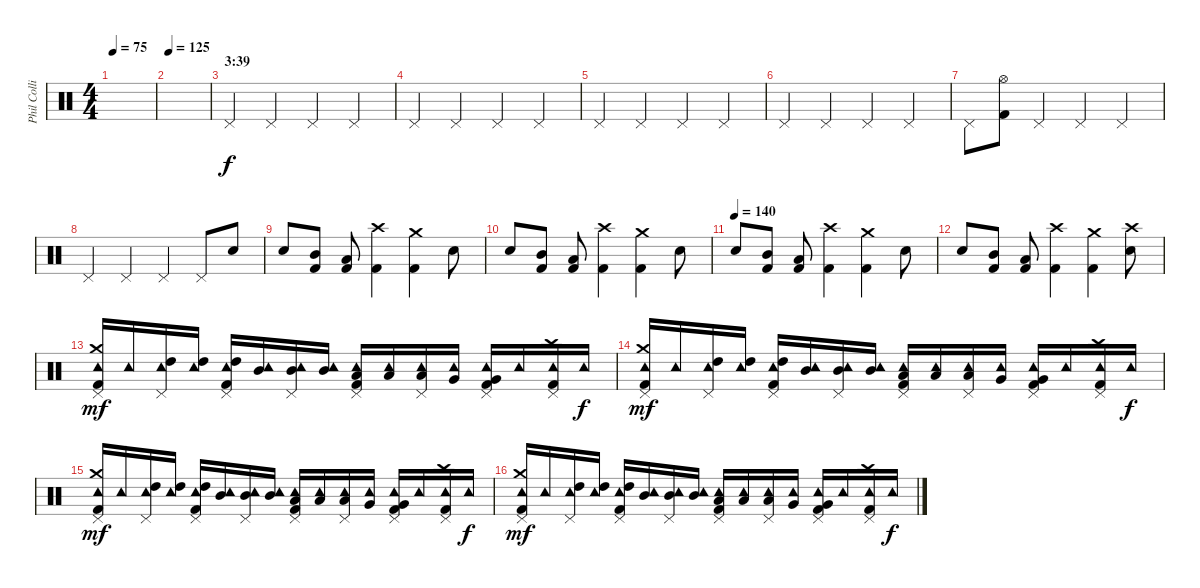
\track ("Phil Collins (drums)" "Phil Colli") {instrument percussion}
\staff {score}
\articulation defaults
\ts (4 4)
\tempo 75
\clef neutral
\ks c
|
\tempo 125
|
\section ("" "3:39")
"Pedal Hi-Hat (hit)".4 "Pedal Hi-Hat (hit)".4 "Pedal Hi-Hat (hit)".4 "Pedal Hi-Hat (hit)".4 |
"Pedal Hi-Hat (hit)".4 "Pedal Hi-Hat (hit)".4 "Pedal Hi-Hat (hit)".4 "Pedal Hi-Hat (hit)".4 |
"Pedal Hi-Hat (hit)".4 "Pedal Hi-Hat (hit)".4 "Pedal Hi-Hat (hit)".4 "Pedal Hi-Hat (hit)".4 |
"Pedal Hi-Hat (hit)".4 "Pedal Hi-Hat (hit)".4 "Pedal Hi-Hat (hit)".4 "Pedal Hi-Hat (hit)".4 |
"Pedal Hi-Hat (hit)".8 ("Hi-Hat (open)" "Kick (hit) 2").8 "Pedal Hi-Hat (hit)".4 "Pedal Hi-Hat (hit)".4 "Pedal Hi-Hat (hit)".4 |
"Pedal Hi-Hat (hit)".4 "Pedal Hi-Hat (hit)".4 "Pedal Hi-Hat (hit)".4 "Pedal Hi-Hat (hit)".8 "Electric Snare (hit)".8 |
"Electric Snare (hit)".8 ("Mid Tom (hit)" "Kick (hit) 2").8 ("Low Tom (hit)" "Kick (hit) 2").8 ("Crash high (hit)" "Kick (hit) 2").4 ("Crash medium (hit)" "Kick (hit) 2").4 "Electric Snare (hit)".8 |
"Electric Snare (hit)".8 ("Mid Tom (hit)" "Kick (hit) 2").8 ("Low Tom (hit)" "Kick (hit) 2").8 ("Crash high (hit)" "Kick (hit) 2").4 ("Crash medium (hit)" "Kick (hit) 2").4 "Electric Snare (hit)".8 |
\tempo (140)
"Electric Snare (hit)".8 ("Mid Tom (hit)" "Kick (hit) 2").8 ("Low Tom (hit)" "Kick (hit) 2").8 ("Crash high (hit)" "Kick (hit) 2").4 ("Crash medium (hit)" "Kick (hit) 2").4 "Electric Snare (hit)".8 |
"Electric Snare (hit)".8 ("Mid Tom (hit)" "Kick (hit) 2").8 ("Low Tom (hit)" "Kick (hit) 2").8 ("Crash high (hit)" "Kick (hit) 2").4 ("Crash medium (hit)" "Kick (hit) 2").4 ("Crash high (hit)" "Electric Snare (hit)").8 |
("Tambourine (hit)" "Crash medium (hit)" "Pedal Hi-Hat (hit)" "Kick (hit) 2").16{dy mf} "Tambourine (hit)".16 ("Tambourine (hit)" "High Tom (hit)" "Pedal Hi-Hat (hit)").16 ("Tambourine (hit)" "High Tom (hit)").16 ("Tambourine (hit)" "High Tom (hit)" "Pedal Hi-Hat (hit)" "Kick (hit) 2").16 ("Tambourine (hit)" "Mid Tom (hit)").16 ("Tambourine (hit)" "Mid Tom (hit)" "Pedal Hi-Hat (hit)").16 ("Tambourine (hit)" "Mid Tom (hit)").16 ("Tambourine (hit)" "Low Tom (hit)" "Pedal Hi-Hat (hit)" "Kick (hit) 2").16 ("Tambourine (hit)" "Low Tom (hit)").16 ("Tambourine (hit)" "Low Tom (hit)" "Pedal Hi-Hat (hit)").16 ("Tambourine (hit)" "Very Low Tom (hit)").16 ("Tambourine (hit)" "Very Low Tom (hit)" "Pedal Hi-Hat (hit)" "Kick (hit) 2").16 "Tambourine (hit)".16 ("Tambourine (hit)" "Crash high (hit)" "Pedal Hi-Hat (hit)" "Kick (hit) 2").16 "Tambourine (hit)".16{dy f} |
("Tambourine (hit)" "Crash medium (hit)" "Pedal Hi-Hat (hit)" "Kick (hit) 2").16{dy mf} "Tambourine (hit)".16 ("Tambourine (hit)" "High Tom (hit)" "Pedal Hi-Hat (hit)").16 ("Tambourine (hit)" "High Tom (hit)").16 ("Tambourine (hit)" "High Tom (hit)" "Pedal Hi-Hat (hit)" "Kick (hit) 2").16 ("Tambourine (hit)" "Mid Tom (hit)").16 ("Tambourine (hit)" "Mid Tom (hit)" "Pedal Hi-Hat (hit)").16 ("Tambourine (hit)" "Mid Tom (hit)").16 ("Tambourine (hit)" "Low Tom (hit)" "Pedal Hi-Hat (hit)" "Kick (hit) 2").16 ("Tambourine (hit)" "Low Tom (hit)").16 ("Tambourine (hit)" "Low Tom (hit)" "Pedal Hi-Hat (hit)").16 ("Tambourine (hit)" "Very Low Tom (hit)").16 ("Tambourine (hit)" "Very Low Tom (hit)" "Pedal Hi-Hat (hit)" "Kick (hit) 2").16 "Tambourine (hit)".16 ("Tambourine (hit)" "Crash high (hit)" "Pedal Hi-Hat (hit)" "Kick (hit) 2").16 "Tambourine (hit)".16{dy f} |
("Tambourine (hit)" "Crash medium (hit)" "Pedal Hi-Hat (hit)" "Kick (hit) 2").16{dy mf} "Tambourine (hit)".16 ("Tambourine (hit)" "High Tom (hit)" "Pedal Hi-Hat (hit)").16 ("Tambourine (hit)" "High Tom (hit)").16 ("Tambourine (hit)" "High Tom (hit)" "Pedal Hi-Hat (hit)" "Kick (hit) 2").16 ("Tambourine (hit)" "Mid Tom (hit)").16 ("Tambourine (hit)" "Mid Tom (hit)" "Pedal Hi-Hat (hit)").16 ("Tambourine (hit)" "Mid Tom (hit)").16 ("Tambourine (hit)" "Low Tom (hit)" "Pedal Hi-Hat (hit)" "Kick (hit) 2").16 ("Tambourine (hit)" "Low Tom (hit)").16 ("Tambourine (hit)" "Low Tom (hit)" "Pedal Hi-Hat (hit)").16 ("Tambourine (hit)" "Very Low Tom (hit)").16 ("Tambourine (hit)" "Very Low Tom (hit)" "Pedal Hi-Hat (hit)" "Kick (hit) 2").16 "Tambourine (hit)".16 ("Tambourine (hit)" "Crash high (hit)" "Pedal Hi-Hat (hit)" "Kick (hit) 2").16 "Tambourine (hit)".16{dy f} |
("Tambourine (hit)" "Crash medium (hit)" "Pedal Hi-Hat (hit)" "Kick (hit) 2").16{dy mf} "Tambourine (hit)".16 ("Tambourine (hit)" "High Tom (hit)" "Pedal Hi-Hat (hit)").16 ("Tambourine (hit)" "High Tom (hit)").16 ("Tambourine (hit)" "High Tom (hit)" "Pedal Hi-Hat (hit)" "Kick (hit) 2").16 ("Tambourine (hit)" "Mid Tom (hit)").16 ("Tambourine (hit)" "Mid Tom (hit)" "Pedal Hi-Hat (hit)").16 ("Tambourine (hit)" "Mid Tom (hit)").16 ("Tambourine (hit)" "Low Tom (hit)" "Pedal Hi-Hat (hit)" "Kick (hit) 2").16 ("Tambourine (hit)" "Low Tom (hit)").16 ("Tambourine (hit)" "Low Tom (hit)" "Pedal Hi-Hat (hit)").16 ("Tambourine (hit)" "Very Low Tom (hit)").16 ("Tambourine (hit)" "Very Low Tom (hit)" "Pedal Hi-Hat (hit)" "Kick (hit) 2").16 "Tambourine (hit)".16 ("Tambourine (hit)" "Crash high (hit)" "Pedal Hi-Hat (hit)" "Kick (hit) 2").16 "Tambourine (hit)".16{dy f}
